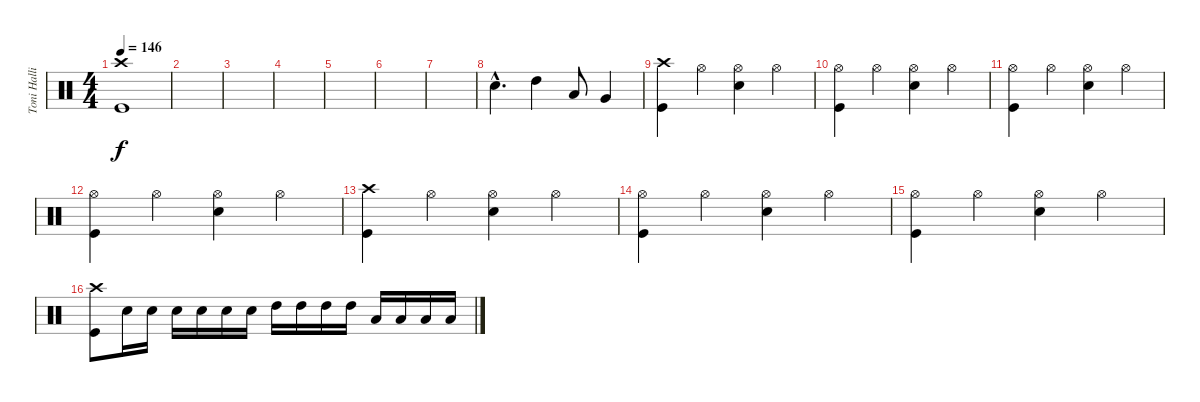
\track ("Toni Hallio" "Toni Halli") {instrument percussion}
\staff {score}
\articulation defaults
\ts (4 4)
\tempo 146
\clef neutral
\ks c
("Crash high (hit)" "Kick (hit)").1{dy f} |
|
|
|
|
|
|
"Snare (hit) 2"{hac}.4{d} "High Tom (hit)".4 "Low Tom (hit)".8 "Very Low Tom (hit)".4 |
("Crash high (hit)" "Kick (hit)").4 "Hi-Hat (open)".4 ("Hi-Hat (open)" "Snare (hit) 2").4 "Hi-Hat (open)".4 |
("Hi-Hat (open)" "Kick (hit)").4 "Hi-Hat (open)".4 ("Hi-Hat (open)" "Snare (hit) 2").4 "Hi-Hat (open)".4 |
("Hi-Hat (open)" "Kick (hit)").4 "Hi-Hat (open)".4 ("Hi-Hat (open)" "Snare (hit) 2").4 "Hi-Hat (open)".4 |
("Hi-Hat (open)" "Kick (hit)").4 "Hi-Hat (open)".4 ("Hi-Hat (open)" "Snare (hit) 2").4 "Hi-Hat (open)".4 |
("Crash high (hit)" "Kick (hit)").4 "Hi-Hat (open)".4 ("Hi-Hat (open)" "Snare (hit) 2").4 "Hi-Hat (open)".4 |
("Hi-Hat (open)" "Kick (hit)").4 "Hi-Hat (open)".4 ("Hi-Hat (open)" "Snare (hit) 2").4 "Hi-Hat (open)".4 |
("Hi-Hat (open)" "Kick (hit)").4 "Hi-Hat (open)".4 ("Hi-Hat (open)" "Snare (hit) 2").4 "Hi-Hat (open)".4 |
("Crash high (hit)" "Kick (hit)").8 "Snare (hit) 2".16 "Snare (hit) 2".16 "Snare (hit) 2".16 "Snare (hit) 2".16 "Snare (hit) 2".16 "Snare (hit) 2".16 "High Tom (hit)".16 "High Tom (hit)".16 "High Tom (hit)".16 "High Tom (hit)".16 "Low Tom (hit)".16 "Low Tom (hit)".16 "Low Tom (hit)".16 "Low Tom (hit)".16
